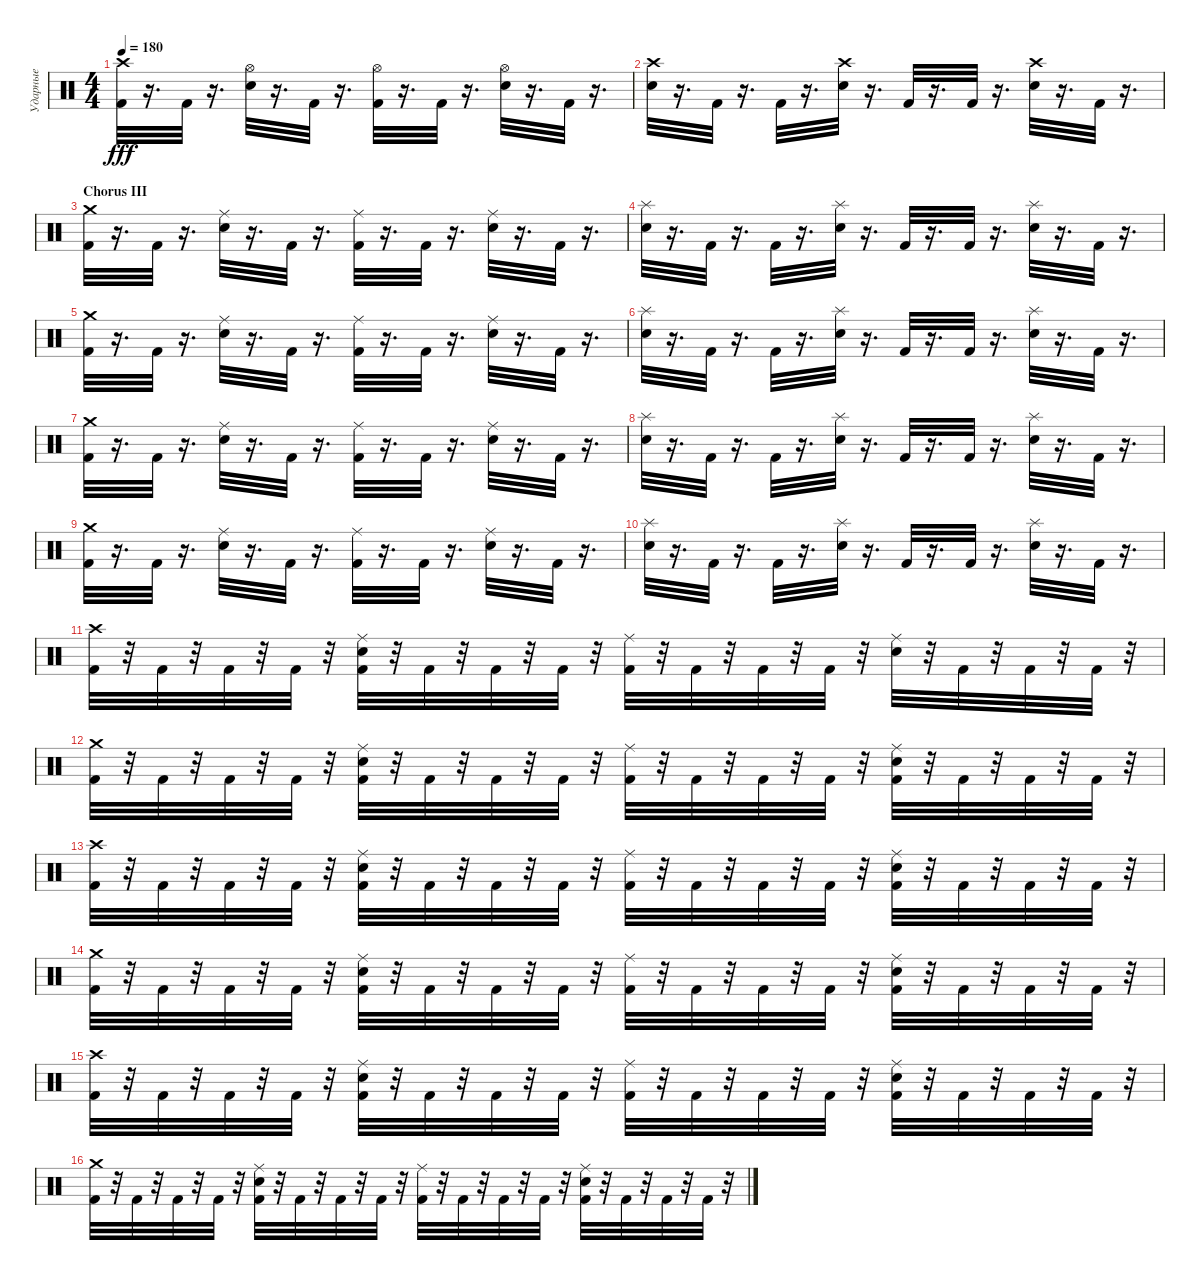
\track ("Ударные" "Ударные") {instrument percussion}
\staff {score}
\articulation defaults
\ts (4 4)
\tempo 180
\clef neutral
\ks c
("Kick (hit) 2" "Crash high (hit)").32{dy fff} r.16{d} "Kick (hit) 2".32 r.16{d} ("Hi-Hat (open)" "Snare (hit) 2").32 r.16{d} "Kick (hit) 2".32 r.16{d} ("Kick (hit) 2" "Hi-Hat (open)").32 r.16{d} "Kick (hit) 2".32 r.16{d} ("Snare (hit) 2" "Hi-Hat (open)").32 r.16{d} "Kick (hit) 2".32 r.16{d} |
("Crash high (hit)" "Snare (hit) 2").32 r.16{d} "Kick (hit) 2".32 r.16{d} "Kick (hit) 2".32 r.16{d} ("Crash high (hit)" "Snare (hit) 2").32 r.16{d} "Kick (hit) 2".32 r.16{d} "Kick (hit) 2".32 r.16{d} ("Snare (hit) 2" "Crash high (hit)").32 r.16{d} "Kick (hit) 2".32 r.16{d} |
\section ("" "Chorus III")
("Crash medium (hit)" "Kick (hit) 2").32 r.16{d} "Kick (hit) 2".32 r.16{d} ("Snare (hit) 2" "Ride (middle)").32 r.16{d} "Kick (hit) 2".32 r.16{d} ("Kick (hit) 2" "Ride (middle)").32 r.16{d} "Kick (hit) 2".32 r.16{d} ("Snare (hit) 2" "Ride (middle)").32 r.16{d} "Kick (hit) 2".32 r.16{d} |
("Snare (hit) 2" "Splash (hit)").32 r.16{d} "Kick (hit) 2".32 r.16{d} "Kick (hit) 2".32 r.16{d} ("Snare (hit) 2" "Splash (hit)").32 r.16{d} "Kick (hit) 2".32 r.16{d} "Kick (hit) 2".32 r.16{d} ("Snare (hit) 2" "Splash (hit)").32 r.16{d} "Kick (hit) 2".32 r.16{d} |
("Kick (hit) 2" "Crash medium (hit)").32 r.16{d} "Kick (hit) 2".32 r.16{d} ("Ride (middle)" "Snare (hit) 2").32 r.16{d} "Kick (hit) 2".32 r.16{d} ("Ride (middle)" "Kick (hit) 2").32 r.16{d} "Kick (hit) 2".32 r.16{d} ("Ride (middle)" "Snare (hit) 2").32 r.16{d} "Kick (hit) 2".32 r.16{d} |
("Splash (hit)" "Snare (hit) 2").32 r.16{d} "Kick (hit) 2".32 r.16{d} "Kick (hit) 2".32 r.16{d} ("Splash (hit)" "Snare (hit) 2").32 r.16{d} "Kick (hit) 2".32 r.16{d} "Kick (hit) 2".32 r.16{d} ("Snare (hit) 2" "Splash (hit)").32 r.16{d} "Kick (hit) 2".32 r.16{d} |
("Kick (hit) 2" "Crash medium (hit)").32 r.16{d} "Kick (hit) 2".32 r.16{d} ("Ride (middle)" "Snare (hit) 2").32 r.16{d} "Kick (hit) 2".32 r.16{d} ("Kick (hit) 2" "Ride (middle)").32 r.16{d} "Kick (hit) 2".32 r.16{d} ("Snare (hit) 2" "Ride (middle)").32 r.16{d} "Kick (hit) 2".32 r.16{d} |
("Splash (hit)" "Snare (hit) 2").32 r.16{d} "Kick (hit) 2".32 r.16{d} "Kick (hit) 2".32 r.16{d} ("Splash (hit)" "Snare (hit) 2").32 r.16{d} "Kick (hit) 2".32 r.16{d} "Kick (hit) 2".32 r.16{d} ("Snare (hit) 2" "Splash (hit)").32 r.16{d} "Kick (hit) 2".32 r.16{d} |
("Crash medium (hit)" "Kick (hit) 2").32 r.16{d} "Kick (hit) 2".32 r.16{d} ("Ride (middle)" "Snare (hit) 2").32 r.16{d} "Kick (hit) 2".32 r.16{d} ("Ride (middle)" "Kick (hit) 2").32 r.16{d} "Kick (hit) 2".32 r.16{d} ("Snare (hit) 2" "Ride (middle)").32 r.16{d} "Kick (hit) 2".32 r.16{d} |
("Splash (hit)" "Snare (hit) 2").32 r.16{d} "Kick (hit) 2".32 r.16{d} "Kick (hit) 2".32 r.16{d} ("Splash (hit)" "Snare (hit) 2").32 r.16{d} "Kick (hit) 2".32 r.16{d} "Kick (hit) 2".32 r.16{d} ("Splash (hit)" "Snare (hit) 2").32 r.16{d} "Kick (hit) 2".32 r.16{d} |
("Crash high (hit)" "Kick (hit) 2").32 r.32 "Kick (hit) 2".32 r.32 "Kick (hit) 2".32 r.32 "Kick (hit) 2".32 r.32 ("Kick (hit) 2" "Ride (middle)" "Snare (hit) 2").32 r.32 "Kick (hit) 2".32 r.32 "Kick (hit) 2".32 r.32 "Kick (hit) 2".32 r.32 ("Kick (hit) 2" "Ride (middle)").32 r.32 "Kick (hit) 2".32 r.32 "Kick (hit) 2".32 r.32 "Kick (hit) 2".32 r.32 ("Snare (hit) 2" "Ride (middle)").32 r.32 "Kick (hit) 2".32 r.32 "Kick (hit) 2".32 r.32 "Kick (hit) 2".32 r.32 |
("Kick (hit) 2" "Crash medium (hit)").32 r.32 "Kick (hit) 2".32 r.32 "Kick (hit) 2".32 r.32 "Kick (hit) 2".32 r.32 ("Snare (hit) 2" "Kick (hit) 2" "Ride (middle)").32 r.32 "Kick (hit) 2".32 r.32 "Kick (hit) 2".32 r.32 "Kick (hit) 2".32 r.32 ("Ride (middle)" "Kick (hit) 2").32 r.32 "Kick (hit) 2".32 r.32 "Kick (hit) 2".32 r.32 "Kick (hit) 2".32 r.32 ("Snare (hit) 2" "Ride (middle)" "Kick (hit) 2").32 r.32 "Kick (hit) 2".32 r.32 "Kick (hit) 2".32 r.32 "Kick (hit) 2".32 r.32 |
("Kick (hit) 2" "Crash high (hit)").32 r.32 "Kick (hit) 2".32 r.32 "Kick (hit) 2".32 r.32 "Kick (hit) 2".32 r.32 ("Ride (middle)" "Kick (hit) 2" "Snare (hit) 2").32 r.32 "Kick (hit) 2".32 r.32 "Kick (hit) 2".32 r.32 "Kick (hit) 2".32 r.32 ("Kick (hit) 2" "Ride (middle)").32 r.32 "Kick (hit) 2".32 r.32 "Kick (hit) 2".32 r.32 "Kick (hit) 2".32 r.32 ("Snare (hit) 2" "Kick (hit) 2" "Ride (middle)").32 r.32 "Kick (hit) 2".32 r.32 "Kick (hit) 2".32 r.32 "Kick (hit) 2".32 r.32 |
("Kick (hit) 2" "Crash medium (hit)").32 r.32 "Kick (hit) 2".32 r.32 "Kick (hit) 2".32 r.32 "Kick (hit) 2".32 r.32 ("Ride (middle)" "Kick (hit) 2" "Snare (hit) 2").32 r.32 "Kick (hit) 2".32 r.32 "Kick (hit) 2".32 r.32 "Kick (hit) 2".32 r.32 ("Kick (hit) 2" "Ride (middle)").32 r.32 "Kick (hit) 2".32 r.32 "Kick (hit) 2".32 r.32 "Kick (hit) 2".32 r.32 ("Snare (hit) 2" "Ride (middle)" "Kick (hit) 2").32 r.32 "Kick (hit) 2".32 r.32 "Kick (hit) 2".32 r.32 "Kick (hit) 2".32 r.32 |
("Crash high (hit)" "Kick (hit) 2").32 r.32 "Kick (hit) 2".32 r.32 "Kick (hit) 2".32 r.32 "Kick (hit) 2".32 r.32 ("Snare (hit) 2" "Kick (hit) 2" "Ride (middle)").32 r.32 "Kick (hit) 2".32 r.32 "Kick (hit) 2".32 r.32 "Kick (hit) 2".32 r.32 ("Kick (hit) 2" "Ride (middle)").32 r.32 "Kick (hit) 2".32 r.32 "Kick (hit) 2".32 r.32 "Kick (hit) 2".32 r.32 ("Snare (hit) 2" "Ride (middle)" "Kick (hit) 2").32 r.32 "Kick (hit) 2".32 r.32 "Kick (hit) 2".32 r.32 "Kick (hit) 2".32 r.32 |
("Kick (hit) 2" "Crash medium (hit)").32 r.32 "Kick (hit) 2".32 r.32 "Kick (hit) 2".32 r.32 "Kick (hit) 2".32 r.32 ("Kick (hit) 2" "Ride (middle)" "Snare (hit) 2").32 r.32 "Kick (hit) 2".32 r.32 "Kick (hit) 2".32 r.32 "Kick (hit) 2".32 r.32 ("Ride (middle)" "Kick (hit) 2").32 r.32 "Kick (hit) 2".32 r.32 "Kick (hit) 2".32 r.32 "Kick (hit) 2".32 r.32 ("Ride (middle)" "Kick (hit) 2" "Snare (hit) 2").32 r.32 "Kick (hit) 2".32 r.32 "Kick (hit) 2".32 r.32 "Kick (hit) 2".32 r.32
